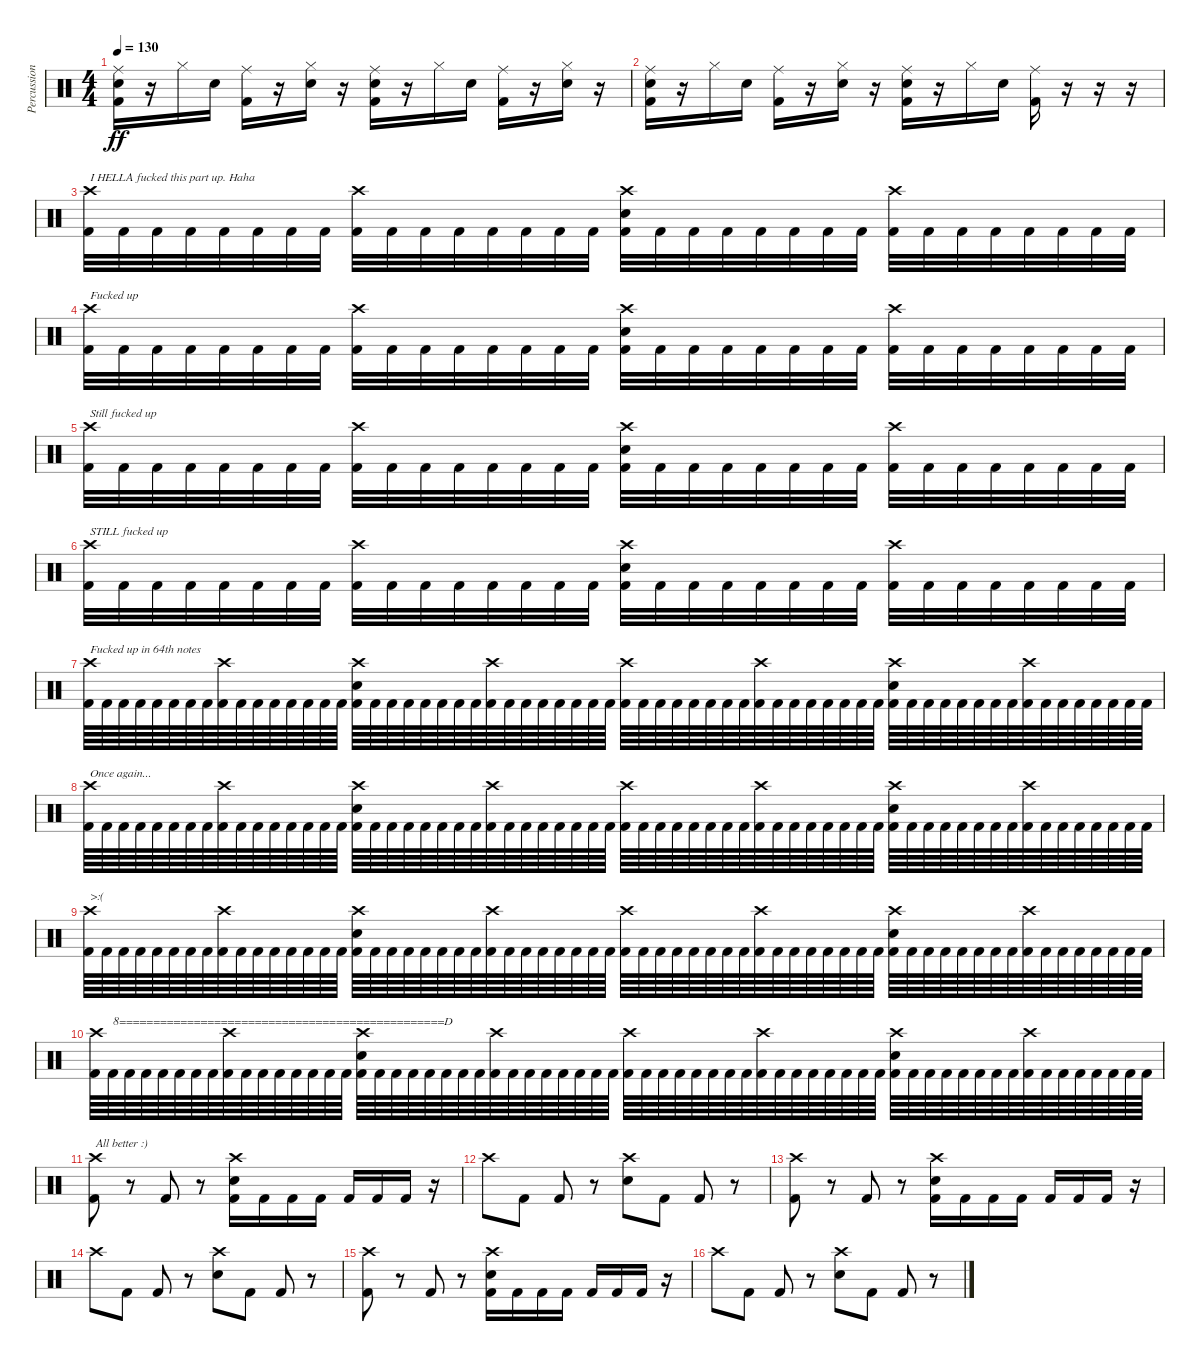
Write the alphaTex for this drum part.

\track ("Percussion" "Percussion") {instrument percussion}
\staff {score}
\articulation defaults
\ts (4 4)
\tempo 130
\clef neutral
\ks c
("Kick (hit) 2" "Electric Snare (hit)" "Ride (middle)").16{dy ff} r.16 "Hi-Hat (closed)".16 "Electric Snare (hit)".16 ("Kick (hit) 2" "Ride (middle)").16 r.16 ("Hi-Hat (closed)" "Electric Snare (hit)").16 r.16 ("Kick (hit) 2" "Electric Snare (hit)" "Ride (middle)").16 r.16 "Hi-Hat (closed)".16 "Electric Snare (hit)".16 ("Kick (hit) 2" "Ride (middle)").16 r.16 ("Hi-Hat (closed)" "Electric Snare (hit)").16 r.16 |
("Kick (hit) 2" "Electric Snare (hit)" "Ride (middle)").16 r.16 "Hi-Hat (closed)".16 "Electric Snare (hit)".16 ("Kick (hit) 2" "Ride (middle)").16 r.16 ("Hi-Hat (closed)" "Electric Snare (hit)").16 r.16 ("Kick (hit) 2" "Electric Snare (hit)" "Ride (middle)").16 r.16 "Hi-Hat (closed)".16 "Electric Snare (hit)".16 ("Kick (hit) 2" "Ride (middle)").16 r.16 r.16 r.16 |
("Crash high (hit)" "Kick (hit) 2").32{txt "I HELLA fucked this part up. Haha"} "Kick (hit) 2".32 "Kick (hit) 2".32 "Kick (hit) 2".32 "Kick (hit) 2".32 "Kick (hit) 2".32 "Kick (hit) 2".32 "Kick (hit) 2".32 ("Crash high (hit)" "Kick (hit) 2").32 "Kick (hit) 2".32 "Kick (hit) 2".32 "Kick (hit) 2".32 "Kick (hit) 2".32 "Kick (hit) 2".32 "Kick (hit) 2".32 "Kick (hit) 2".32 ("Electric Snare (hit)" "Crash high (hit)" "Kick (hit) 2").32 "Kick (hit) 2".32 "Kick (hit) 2".32 "Kick (hit) 2".32 "Kick (hit) 2".32 "Kick (hit) 2".32 "Kick (hit) 2".32 "Kick (hit) 2".32 ("Crash high (hit)" "Kick (hit) 2").32 "Kick (hit) 2".32 "Kick (hit) 2".32 "Kick (hit) 2".32 "Kick (hit) 2".32 "Kick (hit) 2".32 "Kick (hit) 2".32 "Kick (hit) 2".32 |
("Crash high (hit)" "Kick (hit) 2").32{txt "Fucked up"} "Kick (hit) 2".32 "Kick (hit) 2".32 "Kick (hit) 2".32 "Kick (hit) 2".32 "Kick (hit) 2".32 "Kick (hit) 2".32 "Kick (hit) 2".32 ("Crash high (hit)" "Kick (hit) 2").32 "Kick (hit) 2".32 "Kick (hit) 2".32 "Kick (hit) 2".32 "Kick (hit) 2".32 "Kick (hit) 2".32 "Kick (hit) 2".32 "Kick (hit) 2".32 ("Electric Snare (hit)" "Crash high (hit)" "Kick (hit) 2").32 "Kick (hit) 2".32 "Kick (hit) 2".32 "Kick (hit) 2".32 "Kick (hit) 2".32 "Kick (hit) 2".32 "Kick (hit) 2".32 "Kick (hit) 2".32 ("Crash high (hit)" "Kick (hit) 2").32 "Kick (hit) 2".32 "Kick (hit) 2".32 "Kick (hit) 2".32 "Kick (hit) 2".32 "Kick (hit) 2".32 "Kick (hit) 2".32 "Kick (hit) 2".32 |
("Crash high (hit)" "Kick (hit) 2").32{txt "Still fucked up"} "Kick (hit) 2".32 "Kick (hit) 2".32 "Kick (hit) 2".32 "Kick (hit) 2".32 "Kick (hit) 2".32 "Kick (hit) 2".32 "Kick (hit) 2".32 ("Crash high (hit)" "Kick (hit) 2").32 "Kick (hit) 2".32 "Kick (hit) 2".32 "Kick (hit) 2".32 "Kick (hit) 2".32 "Kick (hit) 2".32 "Kick (hit) 2".32 "Kick (hit) 2".32 ("Electric Snare (hit)" "Crash high (hit)" "Kick (hit) 2").32 "Kick (hit) 2".32 "Kick (hit) 2".32 "Kick (hit) 2".32 "Kick (hit) 2".32 "Kick (hit) 2".32 "Kick (hit) 2".32 "Kick (hit) 2".32 ("Crash high (hit)" "Kick (hit) 2").32 "Kick (hit) 2".32 "Kick (hit) 2".32 "Kick (hit) 2".32 "Kick (hit) 2".32 "Kick (hit) 2".32 "Kick (hit) 2".32 "Kick (hit) 2".32 |
("Crash high (hit)" "Kick (hit) 2").32{txt "STILL fucked up"} "Kick (hit) 2".32 "Kick (hit) 2".32 "Kick (hit) 2".32 "Kick (hit) 2".32 "Kick (hit) 2".32 "Kick (hit) 2".32 "Kick (hit) 2".32 ("Crash high (hit)" "Kick (hit) 2").32 "Kick (hit) 2".32 "Kick (hit) 2".32 "Kick (hit) 2".32 "Kick (hit) 2".32 "Kick (hit) 2".32 "Kick (hit) 2".32 "Kick (hit) 2".32 ("Electric Snare (hit)" "Crash high (hit)" "Kick (hit) 2").32 "Kick (hit) 2".32 "Kick (hit) 2".32 "Kick (hit) 2".32 "Kick (hit) 2".32 "Kick (hit) 2".32 "Kick (hit) 2".32 "Kick (hit) 2".32 ("Crash high (hit)" "Kick (hit) 2").32 "Kick (hit) 2".32 "Kick (hit) 2".32 "Kick (hit) 2".32 "Kick (hit) 2".32 "Kick (hit) 2".32 "Kick (hit) 2".32 "Kick (hit) 2".32 |
("Crash high (hit)" "Kick (hit) 2").64{txt "Fucked up in 64th notes"} "Kick (hit) 2".64 "Kick (hit) 2".64 "Kick (hit) 2".64 "Kick (hit) 2".64 "Kick (hit) 2".64 "Kick (hit) 2".64 "Kick (hit) 2".64 ("Crash high (hit)" "Kick (hit) 2").64 "Kick (hit) 2".64 "Kick (hit) 2".64 "Kick (hit) 2".64 "Kick (hit) 2".64 "Kick (hit) 2".64 "Kick (hit) 2".64 "Kick (hit) 2".64 ("Electric Snare (hit)" "Crash high (hit)" "Kick (hit) 2").64 "Kick (hit) 2".64 "Kick (hit) 2".64 "Kick (hit) 2".64 "Kick (hit) 2".64 "Kick (hit) 2".64 "Kick (hit) 2".64 "Kick (hit) 2".64 ("Crash high (hit)" "Kick (hit) 2").64 "Kick (hit) 2".64 "Kick (hit) 2".64 "Kick (hit) 2".64 "Kick (hit) 2".64 "Kick (hit) 2".64 "Kick (hit) 2".64 "Kick (hit) 2".64 ("Crash high (hit)" "Kick (hit) 2").64 "Kick (hit) 2".64 "Kick (hit) 2".64 "Kick (hit) 2".64 "Kick (hit) 2".64 "Kick (hit) 2".64 "Kick (hit) 2".64 "Kick (hit) 2".64 ("Crash high (hit)" "Kick (hit) 2").64 "Kick (hit) 2".64 "Kick (hit) 2".64 "Kick (hit) 2".64 "Kick (hit) 2".64 "Kick (hit) 2".64 "Kick (hit) 2".64 "Kick (hit) 2".64 ("Electric Snare (hit)" "Crash high (hit)" "Kick (hit) 2").64 "Kick (hit) 2".64 "Kick (hit) 2".64 "Kick (hit) 2".64 "Kick (hit) 2".64 "Kick (hit) 2".64 "Kick (hit) 2".64 "Kick (hit) 2".64 ("Crash high (hit)" "Kick (hit) 2").64 "Kick (hit) 2".64 "Kick (hit) 2".64 "Kick (hit) 2".64 "Kick (hit) 2".64 "Kick (hit) 2".64 "Kick (hit) 2".64 "Kick (hit) 2".64 |
("Crash high (hit)" "Kick (hit) 2").64{txt "Once again..."} "Kick (hit) 2".64 "Kick (hit) 2".64 "Kick (hit) 2".64 "Kick (hit) 2".64 "Kick (hit) 2".64 "Kick (hit) 2".64 "Kick (hit) 2".64 ("Crash high (hit)" "Kick (hit) 2").64 "Kick (hit) 2".64 "Kick (hit) 2".64 "Kick (hit) 2".64 "Kick (hit) 2".64 "Kick (hit) 2".64 "Kick (hit) 2".64 "Kick (hit) 2".64 ("Electric Snare (hit)" "Crash high (hit)" "Kick (hit) 2").64 "Kick (hit) 2".64 "Kick (hit) 2".64 "Kick (hit) 2".64 "Kick (hit) 2".64 "Kick (hit) 2".64 "Kick (hit) 2".64 "Kick (hit) 2".64 ("Crash high (hit)" "Kick (hit) 2").64 "Kick (hit) 2".64 "Kick (hit) 2".64 "Kick (hit) 2".64 "Kick (hit) 2".64 "Kick (hit) 2".64 "Kick (hit) 2".64 "Kick (hit) 2".64 ("Crash high (hit)" "Kick (hit) 2").64 "Kick (hit) 2".64 "Kick (hit) 2".64 "Kick (hit) 2".64 "Kick (hit) 2".64 "Kick (hit) 2".64 "Kick (hit) 2".64 "Kick (hit) 2".64 ("Crash high (hit)" "Kick (hit) 2").64 "Kick (hit) 2".64 "Kick (hit) 2".64 "Kick (hit) 2".64 "Kick (hit) 2".64 "Kick (hit) 2".64 "Kick (hit) 2".64 "Kick (hit) 2".64 ("Electric Snare (hit)" "Crash high (hit)" "Kick (hit) 2").64 "Kick (hit) 2".64 "Kick (hit) 2".64 "Kick (hit) 2".64 "Kick (hit) 2".64 "Kick (hit) 2".64 "Kick (hit) 2".64 "Kick (hit) 2".64 ("Crash high (hit)" "Kick (hit) 2").64 "Kick (hit) 2".64 "Kick (hit) 2".64 "Kick (hit) 2".64 "Kick (hit) 2".64 "Kick (hit) 2".64 "Kick (hit) 2".64 "Kick (hit) 2".64 |
("Crash high (hit)" "Kick (hit) 2").64{txt ">:("} "Kick (hit) 2".64 "Kick (hit) 2".64 "Kick (hit) 2".64 "Kick (hit) 2".64 "Kick (hit) 2".64 "Kick (hit) 2".64 "Kick (hit) 2".64 ("Crash high (hit)" "Kick (hit) 2").64 "Kick (hit) 2".64 "Kick (hit) 2".64 "Kick (hit) 2".64 "Kick (hit) 2".64 "Kick (hit) 2".64 "Kick (hit) 2".64 "Kick (hit) 2".64 ("Electric Snare (hit)" "Crash high (hit)" "Kick (hit) 2").64 "Kick (hit) 2".64 "Kick (hit) 2".64 "Kick (hit) 2".64 "Kick (hit) 2".64 "Kick (hit) 2".64 "Kick (hit) 2".64 "Kick (hit) 2".64 ("Crash high (hit)" "Kick (hit) 2").64 "Kick (hit) 2".64 "Kick (hit) 2".64 "Kick (hit) 2".64 "Kick (hit) 2".64 "Kick (hit) 2".64 "Kick (hit) 2".64 "Kick (hit) 2".64 ("Crash high (hit)" "Kick (hit) 2").64 "Kick (hit) 2".64 "Kick (hit) 2".64 "Kick (hit) 2".64 "Kick (hit) 2".64 "Kick (hit) 2".64 "Kick (hit) 2".64 "Kick (hit) 2".64 ("Crash high (hit)" "Kick (hit) 2").64 "Kick (hit) 2".64 "Kick (hit) 2".64 "Kick (hit) 2".64 "Kick (hit) 2".64 "Kick (hit) 2".64 "Kick (hit) 2".64 "Kick (hit) 2".64 ("Electric Snare (hit)" "Crash high (hit)" "Kick (hit) 2").64 "Kick (hit) 2".64 "Kick (hit) 2".64 "Kick (hit) 2".64 "Kick (hit) 2".64 "Kick (hit) 2".64 "Kick (hit) 2".64 "Kick (hit) 2".64 ("Crash high (hit)" "Kick (hit) 2").64 "Kick (hit) 2".64 "Kick (hit) 2".64 "Kick (hit) 2".64 "Kick (hit) 2".64 "Kick (hit) 2".64 "Kick (hit) 2".64 "Kick (hit) 2".64 |
("Crash high (hit)" "Kick (hit) 2").64 "Kick (hit) 2".64{txt "8================================================D"} "Kick (hit) 2".64 "Kick (hit) 2".64 "Kick (hit) 2".64 "Kick (hit) 2".64 "Kick (hit) 2".64 "Kick (hit) 2".64 ("Crash high (hit)" "Kick (hit) 2").64 "Kick (hit) 2".64 "Kick (hit) 2".64 "Kick (hit) 2".64 "Kick (hit) 2".64 "Kick (hit) 2".64 "Kick (hit) 2".64 "Kick (hit) 2".64 ("Electric Snare (hit)" "Crash high (hit)" "Kick (hit) 2").64 "Kick (hit) 2".64 "Kick (hit) 2".64 "Kick (hit) 2".64 "Kick (hit) 2".64 "Kick (hit) 2".64 "Kick (hit) 2".64 "Kick (hit) 2".64 ("Crash high (hit)" "Kick (hit) 2").64 "Kick (hit) 2".64 "Kick (hit) 2".64 "Kick (hit) 2".64 "Kick (hit) 2".64 "Kick (hit) 2".64 "Kick (hit) 2".64 "Kick (hit) 2".64 ("Crash high (hit)" "Kick (hit) 2").64 "Kick (hit) 2".64 "Kick (hit) 2".64 "Kick (hit) 2".64 "Kick (hit) 2".64 "Kick (hit) 2".64 "Kick (hit) 2".64 "Kick (hit) 2".64 ("Crash high (hit)" "Kick (hit) 2").64 "Kick (hit) 2".64 "Kick (hit) 2".64 "Kick (hit) 2".64 "Kick (hit) 2".64 "Kick (hit) 2".64 "Kick (hit) 2".64 "Kick (hit) 2".64 ("Electric Snare (hit)" "Crash high (hit)" "Kick (hit) 2").64 "Kick (hit) 2".64 "Kick (hit) 2".64 "Kick (hit) 2".64 "Kick (hit) 2".64 "Kick (hit) 2".64 "Kick (hit) 2".64 "Kick (hit) 2".64 ("Crash high (hit)" "Kick (hit) 2").64 "Kick (hit) 2".64 "Kick (hit) 2".64 "Kick (hit) 2".64 "Kick (hit) 2".64 "Kick (hit) 2".64 "Kick (hit) 2".64 "Kick (hit) 2".64 |
("Crash high (hit)" "Kick (hit) 2").8{txt "All better :)"} r.8 "Kick (hit) 2".8 r.8 ("Electric Snare (hit)" "Crash high (hit)" "Kick (hit) 2").16 "Kick (hit) 2".16 "Kick (hit) 2".16 "Kick (hit) 2".16 "Kick (hit) 2".16 "Kick (hit) 2".16 "Kick (hit) 2".16 r.16 |
"Crash high (hit)".8 "Kick (hit) 2".8 "Kick (hit) 2".8 r.8 ("Electric Snare (hit)" "Crash high (hit)").8 "Kick (hit) 2".8 "Kick (hit) 2".8 r.8 |
("Crash high (hit)" "Kick (hit) 2").8 r.8 "Kick (hit) 2".8 r.8 ("Electric Snare (hit)" "Crash high (hit)" "Kick (hit) 2").16 "Kick (hit) 2".16 "Kick (hit) 2".16 "Kick (hit) 2".16 "Kick (hit) 2".16 "Kick (hit) 2".16 "Kick (hit) 2".16 r.16 |
"Crash high (hit)".8 "Kick (hit) 2".8 "Kick (hit) 2".8 r.8 ("Electric Snare (hit)" "Crash high (hit)").8 "Kick (hit) 2".8 "Kick (hit) 2".8 r.8 |
("Crash high (hit)" "Kick (hit) 2").8 r.8 "Kick (hit) 2".8 r.8 ("Electric Snare (hit)" "Crash high (hit)" "Kick (hit) 2").16 "Kick (hit) 2".16 "Kick (hit) 2".16 "Kick (hit) 2".16 "Kick (hit) 2".16 "Kick (hit) 2".16 "Kick (hit) 2".16 r.16 |
"Crash high (hit)".8 "Kick (hit) 2".8 "Kick (hit) 2".8 r.8 ("Electric Snare (hit)" "Crash high (hit)").8 "Kick (hit) 2".8 "Kick (hit) 2".8 r.8
